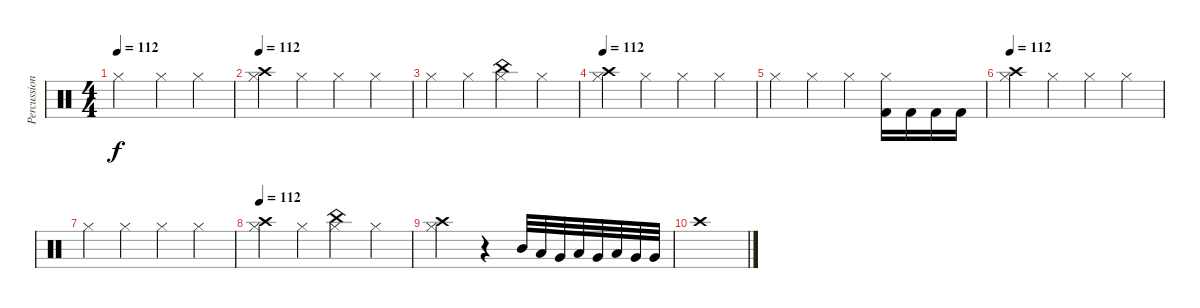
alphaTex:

\track ("Percussion" "Percussion") {instrument percussion}
\staff {score}
\articulation defaults
\ts (4 4)
\tempo 112
\clef neutral
\ks c "Hi-Hat (closed)".2{dy f} "Hi-Hat (closed)".4 "Hi-Hat (closed)".4
|
\tempo 112
("Hi-Hat (closed)" "Crash high (hit)").4 "Hi-Hat (closed)".4 "Hi-Hat (closed)".4 "Hi-Hat (closed)".4 |
"Hi-Hat (closed)".4 "Hi-Hat (closed)".4 ("Hi-Hat (closed)" "China (hit)").4 "Hi-Hat (closed)".4 |
\tempo 112
("Hi-Hat (closed)" "Crash high (hit)").4 "Hi-Hat (closed)".4 "Hi-Hat (closed)".4 "Hi-Hat (closed)".4 |
"Hi-Hat (closed)".4 "Hi-Hat (closed)".4 "Hi-Hat (closed)".4 ("Hi-Hat (closed)" "Kick (hit) 2").16 "Kick (hit) 2".16 "Kick (hit) 2".16 "Kick (hit) 2".16 |
\tempo 112
("Hi-Hat (closed)" "Crash high (hit)").4 "Hi-Hat (closed)".4 "Hi-Hat (closed)".4 "Hi-Hat (closed)".4 |
"Hi-Hat (closed)".4 "Hi-Hat (closed)".4 "Hi-Hat (closed)".4 "Hi-Hat (closed)".4 |
\tempo 112
("Hi-Hat (closed)" "Crash high (hit)").4 "Hi-Hat (closed)".4 ("Hi-Hat (closed)" "China (hit)").4 "Hi-Hat (closed)".4 |
("Hi-Hat (closed)" "Crash high (hit)").2 r.4 "Mid Tom (hit)".32 "Low Tom (hit)".32 "Very Low Tom (hit)".32 "Low Tom (hit)".32 "Very Low Tom (hit)".32 "Low Floor Tom (hit)".32 "Very Low Tom (hit)".32 "Very Low Tom (hit)".32 |
"Crash high (hit)".1
